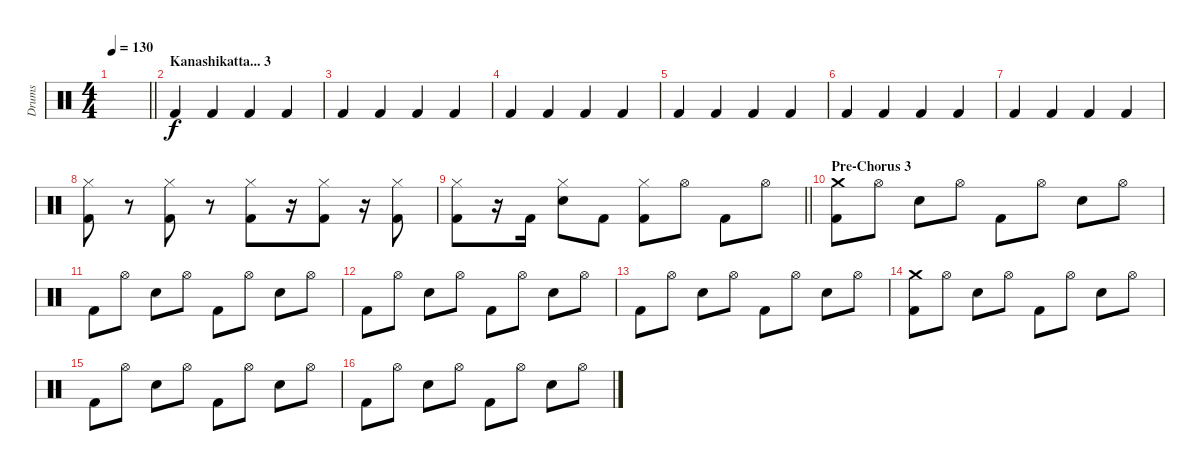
\track ("Drums" "Drums") {instrument percussion}
\staff {score}
\articulation defaults
\ts (4 4)
\tempo 130
\clef neutral
\barLineRight lightlight
\ks c
|
\section ("" "Kanashikatta... 3")
"Kick (hit) 2".4 "Kick (hit) 2".4 "Kick (hit) 2".4 "Kick (hit) 2".4 |
"Kick (hit) 2".4 "Kick (hit) 2".4 "Kick (hit) 2".4 "Kick (hit) 2".4 |
"Kick (hit) 2".4 "Kick (hit) 2".4 "Kick (hit) 2".4 "Kick (hit) 2".4 |
"Kick (hit) 2".4 "Kick (hit) 2".4 "Kick (hit) 2".4 "Kick (hit) 2".4 |
"Kick (hit) 2".4 "Kick (hit) 2".4 "Kick (hit) 2".4 "Kick (hit) 2".4 |
"Kick (hit) 2".4 "Kick (hit) 2".4 "Kick (hit) 2".4 "Kick (hit) 2".4 |
("Kick (hit) 2" "Hi-Hat (closed)").8 r.8 ("Kick (hit) 2" "Hi-Hat (closed)").8 r.8 ("Kick (hit) 2" "Hi-Hat (closed)").8 r.16 ("Kick (hit) 2" "Hi-Hat (closed)").8 r.16 ("Kick (hit) 2" "Hi-Hat (closed)").8 |
\barLineRight lightlight
("Kick (hit) 2" "Hi-Hat (closed)").8 r.16 "Kick (hit) 2".16 ("Electric Snare (hit)" "Hi-Hat (closed)").8 "Kick (hit) 2".8 ("Kick (hit) 2" "Hi-Hat (closed)").8 "Hi-Hat (open)".8 "Kick (hit) 2".8 "Hi-Hat (open)".8 |
\section ("" "Pre-Chorus 3")
("Kick (hit) 2" "Crash medium (hit)").8 "Hi-Hat (open)".8 "Electric Snare (hit)".8 "Hi-Hat (open)".8 "Kick (hit) 2".8 "Hi-Hat (open)".8 "Electric Snare (hit)".8 "Hi-Hat (open)".8 |
"Kick (hit) 2".8 "Hi-Hat (open)".8 "Electric Snare (hit)".8 "Hi-Hat (open)".8 "Kick (hit) 2".8 "Hi-Hat (open)".8 "Electric Snare (hit)".8 "Hi-Hat (open)".8 |
"Kick (hit) 2".8 "Hi-Hat (open)".8 "Electric Snare (hit)".8 "Hi-Hat (open)".8 "Kick (hit) 2".8 "Hi-Hat (open)".8 "Electric Snare (hit)".8 "Hi-Hat (open)".8 |
"Kick (hit) 2".8 "Hi-Hat (open)".8 "Electric Snare (hit)".8 "Hi-Hat (open)".8 "Kick (hit) 2".8 "Hi-Hat (open)".8 "Electric Snare (hit)".8 "Hi-Hat (open)".8 |
("Kick (hit) 2" "Crash medium (hit)").8 "Hi-Hat (open)".8 "Electric Snare (hit)".8 "Hi-Hat (open)".8 "Kick (hit) 2".8 "Hi-Hat (open)".8 "Electric Snare (hit)".8 "Hi-Hat (open)".8 |
"Kick (hit) 2".8 "Hi-Hat (open)".8 "Electric Snare (hit)".8 "Hi-Hat (open)".8 "Kick (hit) 2".8 "Hi-Hat (open)".8 "Electric Snare (hit)".8 "Hi-Hat (open)".8 |
"Kick (hit) 2".8 "Hi-Hat (open)".8 "Electric Snare (hit)".8 "Hi-Hat (open)".8 "Kick (hit) 2".8 "Hi-Hat (open)".8 "Electric Snare (hit)".8 "Hi-Hat (open)".8
